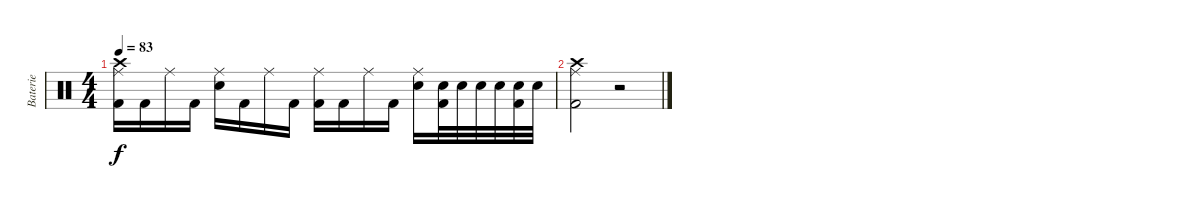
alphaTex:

\track ("Baterie" "Baterie") {instrument percussion}
\staff {score}
\articulation defaults
\ts (4 4)
\tempo 83
\clef neutral
\ks c
("Crash high (hit)" "Kick (hit) 2" "Ride (middle)").16{dy f} "Kick (hit) 2".16 "Ride (middle)".16 "Kick (hit) 2".16 ("Snare (hit) 2" "Ride (middle)").16 "Kick (hit) 2".16 "Ride (middle)".16 "Kick (hit) 2".16 ("Kick (hit) 2" "Ride (middle)").16 "Kick (hit) 2".16 "Ride (middle)".16 "Kick (hit) 2".16 ("Snare (hit) 2" "Ride (middle)").16 ("Snare (hit) 2" "Kick (hit) 2").32 "Snare (hit) 2".32 "Snare (hit) 2".32 "Snare (hit) 2".32 ("Snare (hit) 2" "Kick (hit) 2").32 "Snare (hit) 2".32 |
("Crash high (hit)" "Kick (hit) 2" "Ride (middle)").2 r.2
